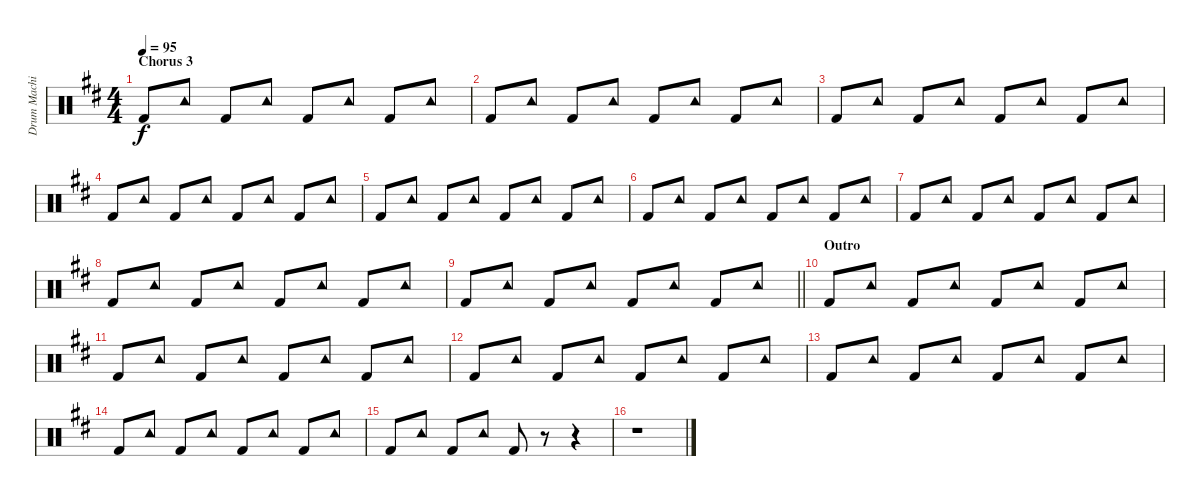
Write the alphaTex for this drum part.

\track ("Drum Machine" "Drum Machi") {instrument percussion}
\staff {score}
\articulation defaults
\ts (4 4)
\section ("" "Chorus 3")
\tempo 95
\clef neutral
\ks d "Kick (hit) 2".8{dy f} "Tambourine (hit)".8 "Kick (hit) 2".8 "Tambourine (hit)".8 "Kick (hit) 2".8 "Tambourine (hit)".8 "Kick (hit) 2".8 "Tambourine (hit)".8
|
"Kick (hit) 2".8 "Tambourine (hit)".8 "Kick (hit) 2".8 "Tambourine (hit)".8 "Kick (hit) 2".8 "Tambourine (hit)".8 "Kick (hit) 2".8 "Tambourine (hit)".8 |
"Kick (hit) 2".8 "Tambourine (hit)".8 "Kick (hit) 2".8 "Tambourine (hit)".8 "Kick (hit) 2".8 "Tambourine (hit)".8 "Kick (hit) 2".8 "Tambourine (hit)".8 |
"Kick (hit) 2".8 "Tambourine (hit)".8 "Kick (hit) 2".8 "Tambourine (hit)".8 "Kick (hit) 2".8 "Tambourine (hit)".8 "Kick (hit) 2".8 "Tambourine (hit)".8 |
"Kick (hit) 2".8 "Tambourine (hit)".8 "Kick (hit) 2".8 "Tambourine (hit)".8 "Kick (hit) 2".8 "Tambourine (hit)".8 "Kick (hit) 2".8 "Tambourine (hit)".8 |
"Kick (hit) 2".8 "Tambourine (hit)".8 "Kick (hit) 2".8 "Tambourine (hit)".8 "Kick (hit) 2".8 "Tambourine (hit)".8 "Kick (hit) 2".8 "Tambourine (hit)".8 |
"Kick (hit) 2".8 "Tambourine (hit)".8 "Kick (hit) 2".8 "Tambourine (hit)".8 "Kick (hit) 2".8 "Tambourine (hit)".8 "Kick (hit) 2".8 "Tambourine (hit)".8 |
"Kick (hit) 2".8 "Tambourine (hit)".8 "Kick (hit) 2".8 "Tambourine (hit)".8 "Kick (hit) 2".8 "Tambourine (hit)".8 "Kick (hit) 2".8 "Tambourine (hit)".8 |
\barLineRight lightlight "Kick (hit) 2".8 "Tambourine (hit)".8 "Kick (hit) 2".8 "Tambourine (hit)".8 "Kick (hit) 2".8 "Tambourine (hit)".8 "Kick (hit) 2".8 "Tambourine (hit)".8
|
\section ("" "Outro")
"Kick (hit) 2".8 "Tambourine (hit)".8 "Kick (hit) 2".8 "Tambourine (hit)".8 "Kick (hit) 2".8 "Tambourine (hit)".8 "Kick (hit) 2".8 "Tambourine (hit)".8 |
"Kick (hit) 2".8 "Tambourine (hit)".8 "Kick (hit) 2".8 "Tambourine (hit)".8 "Kick (hit) 2".8 "Tambourine (hit)".8 "Kick (hit) 2".8 "Tambourine (hit)".8 |
"Kick (hit) 2".8 "Tambourine (hit)".8 "Kick (hit) 2".8 "Tambourine (hit)".8 "Kick (hit) 2".8 "Tambourine (hit)".8 "Kick (hit) 2".8 "Tambourine (hit)".8 |
"Kick (hit) 2".8 "Tambourine (hit)".8 "Kick (hit) 2".8 "Tambourine (hit)".8 "Kick (hit) 2".8 "Tambourine (hit)".8 "Kick (hit) 2".8 "Tambourine (hit)".8 |
"Kick (hit) 2".8 "Tambourine (hit)".8 "Kick (hit) 2".8 "Tambourine (hit)".8 "Kick (hit) 2".8 "Tambourine (hit)".8 "Kick (hit) 2".8 "Tambourine (hit)".8 |
"Kick (hit) 2".8 "Tambourine (hit)".8 "Kick (hit) 2".8 "Tambourine (hit)".8 "Kick (hit) 2".8 r.8 r.4 |
r.1
